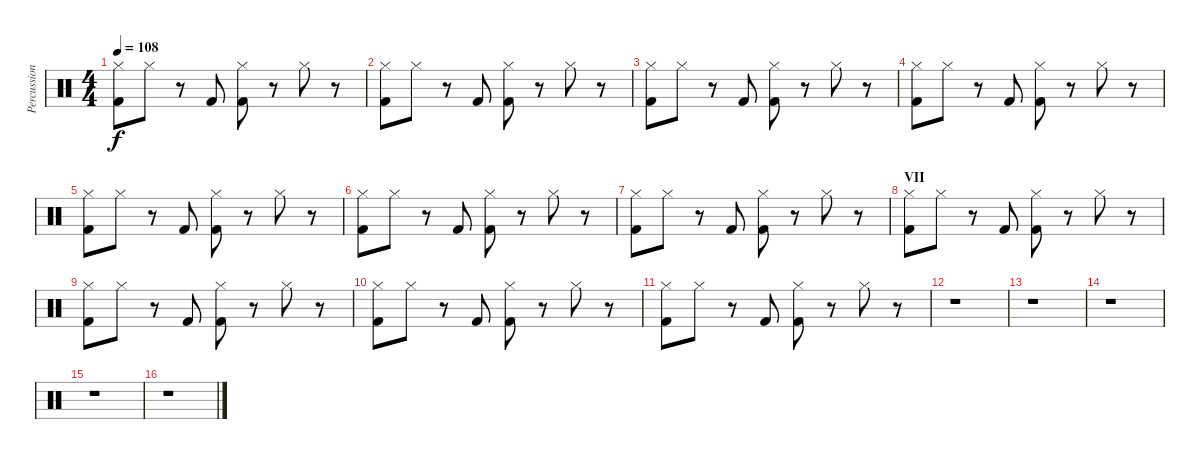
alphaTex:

\track ("Percussion" "Percussion") {instrument percussion}
\staff {score}
\articulation defaults
\ts (4 4)
\tempo 108
\clef neutral
\ks c
("Hi-Hat (closed)" "Kick (hit) 2").8{dy f} "Hi-Hat (closed)".8 r.8 "Kick (hit) 2".8 ("Hi-Hat (closed)" "Kick (hit) 2").8 r.8 "Hi-Hat (closed)".8 r.8 |
("Hi-Hat (closed)" "Kick (hit) 2").8 "Hi-Hat (closed)".8 r.8 "Kick (hit) 2".8 ("Hi-Hat (closed)" "Kick (hit) 2").8 r.8 "Hi-Hat (closed)".8 r.8 |
("Hi-Hat (closed)" "Kick (hit) 2").8 "Hi-Hat (closed)".8 r.8 "Kick (hit) 2".8 ("Hi-Hat (closed)" "Kick (hit) 2").8 r.8 "Hi-Hat (closed)".8 r.8 |
("Hi-Hat (closed)" "Kick (hit) 2").8 "Hi-Hat (closed)".8 r.8 "Kick (hit) 2".8 ("Hi-Hat (closed)" "Kick (hit) 2").8 r.8 "Hi-Hat (closed)".8 r.8 |
("Hi-Hat (closed)" "Kick (hit) 2").8 "Hi-Hat (closed)".8 r.8 "Kick (hit) 2".8 ("Hi-Hat (closed)" "Kick (hit) 2").8 r.8 "Hi-Hat (closed)".8 r.8 |
("Hi-Hat (closed)" "Kick (hit) 2").8 "Hi-Hat (closed)".8 r.8 "Kick (hit) 2".8 ("Hi-Hat (closed)" "Kick (hit) 2").8 r.8 "Hi-Hat (closed)".8 r.8 |
("Hi-Hat (closed)" "Kick (hit) 2").8 "Hi-Hat (closed)".8 r.8 "Kick (hit) 2".8 ("Hi-Hat (closed)" "Kick (hit) 2").8 r.8 "Hi-Hat (closed)".8 r.8 |
\section ("" "VII")
("Hi-Hat (closed)" "Kick (hit) 2").8 "Hi-Hat (closed)".8 r.8 "Kick (hit) 2".8 ("Hi-Hat (closed)" "Kick (hit) 2").8 r.8 "Hi-Hat (closed)".8 r.8 |
("Hi-Hat (closed)" "Kick (hit) 2").8 "Hi-Hat (closed)".8 r.8 "Kick (hit) 2".8 ("Hi-Hat (closed)" "Kick (hit) 2").8 r.8 "Hi-Hat (closed)".8 r.8 |
("Hi-Hat (closed)" "Kick (hit) 2").8 "Hi-Hat (closed)".8 r.8 "Kick (hit) 2".8 ("Hi-Hat (closed)" "Kick (hit) 2").8 r.8 "Hi-Hat (closed)".8 r.8 |
("Hi-Hat (closed)" "Kick (hit) 2").8 "Hi-Hat (closed)".8 r.8 "Kick (hit) 2".8 ("Hi-Hat (closed)" "Kick (hit) 2").8 r.8 "Hi-Hat (closed)".8 r.8 |
r.1 |
r.1 |
r.1 |
r.1 |
r.1
